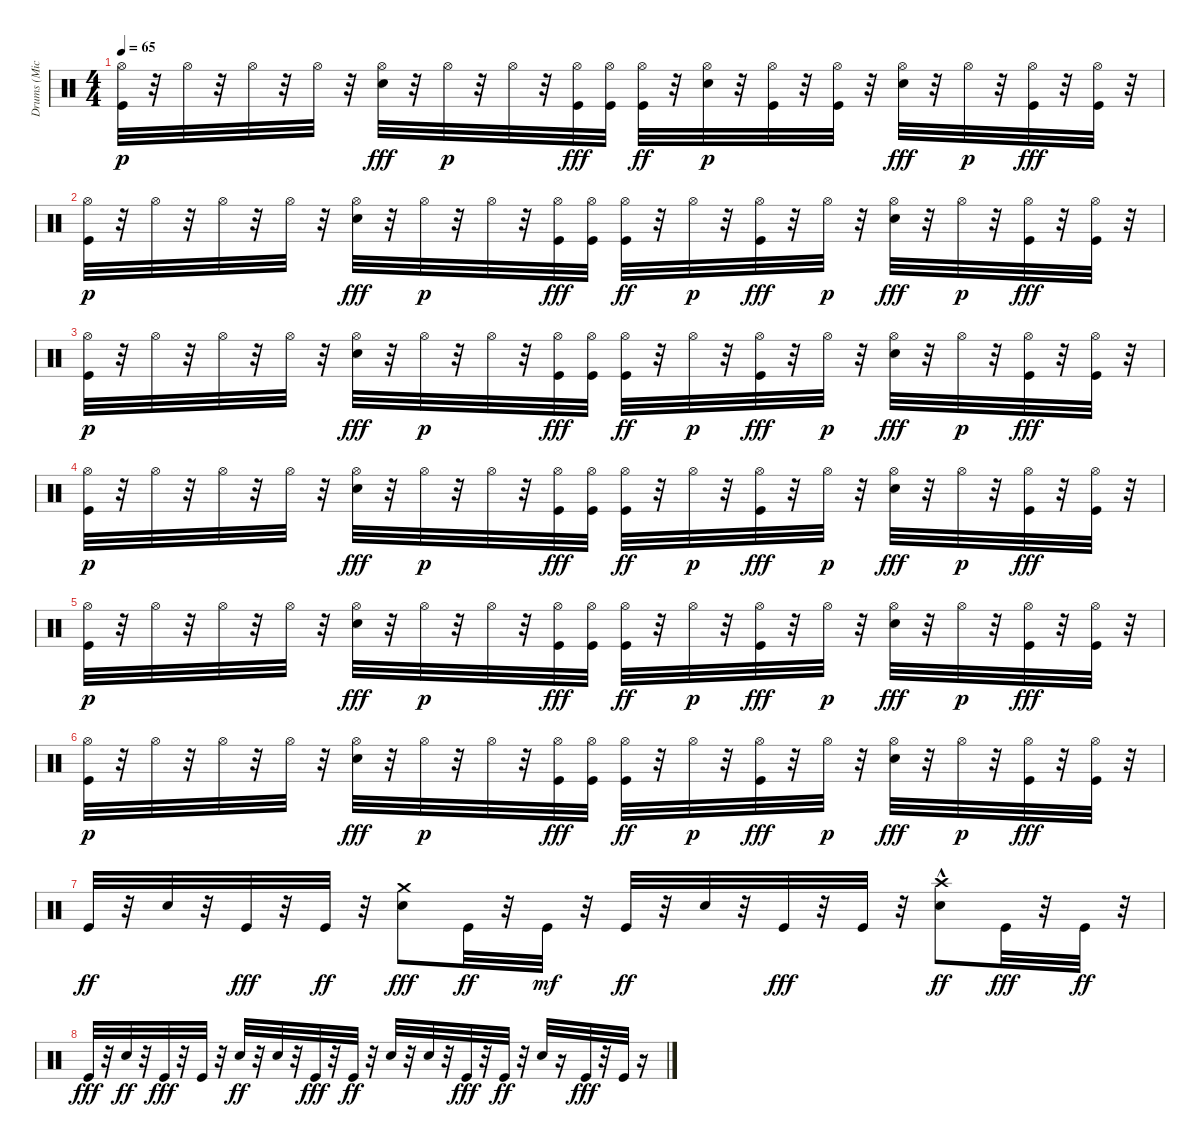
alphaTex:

\track ("Drums (Michael Giles)" "Drums (Mic") {instrument percussion}
\staff {score}
\articulation defaults
\ts (4 4)
\tempo 65
\clef neutral
\ks c
("Kick (hit)" "Hi-Hat (open)").32{dy p} r.32 "Hi-Hat (open)".32 r.32 "Hi-Hat (open)".32 r.32 "Hi-Hat (open)".32 r.32 ("Hi-Hat (open)" "Snare (hit) 2").32{dy fff} r.32 "Hi-Hat (open)".32{dy p} r.32 "Hi-Hat (open)".32 r.32 ("Hi-Hat (open)" "Kick (hit)").32{dy fff} ("Hi-Hat (open)" "Kick (hit)").32 ("Hi-Hat (open)" "Kick (hit)").32{dy ff} r.32 ("Snare (hit) 2" "Hi-Hat (open)").32{dy p} r.32 ("Kick (hit)" "Hi-Hat (open)").32 r.32 ("Kick (hit)" "Hi-Hat (open)").32 r.32 ("Hi-Hat (open)" "Snare (hit) 2").32{dy fff} r.32 "Hi-Hat (open)".32{dy p} r.32 ("Hi-Hat (open)" "Kick (hit)").32{dy fff} r.32 ("Hi-Hat (open)" "Kick (hit)").32 r.32 |
("Kick (hit)" "Hi-Hat (open)").32{dy p} r.32 "Hi-Hat (open)".32 r.32 "Hi-Hat (open)".32 r.32 "Hi-Hat (open)".32 r.32 ("Hi-Hat (open)" "Snare (hit) 2").32{dy fff} r.32 "Hi-Hat (open)".32{dy p} r.32 "Hi-Hat (open)".32 r.32 ("Hi-Hat (open)" "Kick (hit)").32{dy fff} ("Hi-Hat (open)" "Kick (hit)").32 ("Hi-Hat (open)" "Kick (hit)").32{dy ff} r.32 "Hi-Hat (open)".32{dy p} r.32 ("Hi-Hat (open)" "Kick (hit)").32{dy fff} r.32 "Hi-Hat (open)".32{dy p} r.32 ("Hi-Hat (open)" "Snare (hit) 2").32{dy fff} r.32 "Hi-Hat (open)".32{dy p} r.32 ("Hi-Hat (open)" "Kick (hit)").32{dy fff} r.32 ("Hi-Hat (open)" "Kick (hit)").32 r.32 |
("Kick (hit)" "Hi-Hat (open)").32{dy p} r.32 "Hi-Hat (open)".32 r.32 "Hi-Hat (open)".32 r.32 "Hi-Hat (open)".32 r.32 ("Hi-Hat (open)" "Snare (hit) 2").32{dy fff} r.32 "Hi-Hat (open)".32{dy p} r.32 "Hi-Hat (open)".32 r.32 ("Hi-Hat (open)" "Kick (hit)").32{dy fff} ("Hi-Hat (open)" "Kick (hit)").32 ("Hi-Hat (open)" "Kick (hit)").32{dy ff} r.32 "Hi-Hat (open)".32{dy p} r.32 ("Hi-Hat (open)" "Kick (hit)").32{dy fff} r.32 "Hi-Hat (open)".32{dy p} r.32 ("Hi-Hat (open)" "Snare (hit) 2").32{dy fff} r.32 "Hi-Hat (open)".32{dy p} r.32 ("Hi-Hat (open)" "Kick (hit)").32{dy fff} r.32 ("Hi-Hat (open)" "Kick (hit)").32 r.32 |
("Kick (hit)" "Hi-Hat (open)").32{dy p} r.32 "Hi-Hat (open)".32 r.32 "Hi-Hat (open)".32 r.32 "Hi-Hat (open)".32 r.32 ("Hi-Hat (open)" "Snare (hit) 2").32{dy fff} r.32 "Hi-Hat (open)".32{dy p} r.32 "Hi-Hat (open)".32 r.32 ("Hi-Hat (open)" "Kick (hit)").32{dy fff} ("Hi-Hat (open)" "Kick (hit)").32 ("Hi-Hat (open)" "Kick (hit)").32{dy ff} r.32 "Hi-Hat (open)".32{dy p} r.32 ("Hi-Hat (open)" "Kick (hit)").32{dy fff} r.32 "Hi-Hat (open)".32{dy p} r.32 ("Hi-Hat (open)" "Snare (hit) 2").32{dy fff} r.32 "Hi-Hat (open)".32{dy p} r.32 ("Hi-Hat (open)" "Kick (hit)").32{dy fff} r.32 ("Hi-Hat (open)" "Kick (hit)").32 r.32 |
("Kick (hit)" "Hi-Hat (open)").32{dy p} r.32 "Hi-Hat (open)".32 r.32 "Hi-Hat (open)".32 r.32 "Hi-Hat (open)".32 r.32 ("Hi-Hat (open)" "Snare (hit) 2").32{dy fff} r.32 "Hi-Hat (open)".32{dy p} r.32 "Hi-Hat (open)".32 r.32 ("Hi-Hat (open)" "Kick (hit)").32{dy fff} ("Hi-Hat (open)" "Kick (hit)").32 ("Hi-Hat (open)" "Kick (hit)").32{dy ff} r.32 "Hi-Hat (open)".32{dy p} r.32 ("Hi-Hat (open)" "Kick (hit)").32{dy fff} r.32 "Hi-Hat (open)".32{dy p} r.32 ("Hi-Hat (open)" "Snare (hit) 2").32{dy fff} r.32 "Hi-Hat (open)".32{dy p} r.32 ("Hi-Hat (open)" "Kick (hit)").32{dy fff} r.32 ("Hi-Hat (open)" "Kick (hit)").32 r.32 |
("Kick (hit)" "Hi-Hat (open)").32{dy p} r.32 "Hi-Hat (open)".32 r.32 "Hi-Hat (open)".32 r.32 "Hi-Hat (open)".32 r.32 ("Hi-Hat (open)" "Snare (hit) 2").32{dy fff} r.32 "Hi-Hat (open)".32{dy p} r.32 "Hi-Hat (open)".32 r.32 ("Hi-Hat (open)" "Kick (hit)").32{dy fff} ("Hi-Hat (open)" "Kick (hit)").32 ("Hi-Hat (open)" "Kick (hit)").32{dy ff} r.32 "Hi-Hat (open)".32{dy p} r.32 ("Hi-Hat (open)" "Kick (hit)").32{dy fff} r.32 "Hi-Hat (open)".32{dy p} r.32 ("Hi-Hat (open)" "Snare (hit) 2").32{dy fff} r.32 "Hi-Hat (open)".32{dy p} r.32 ("Hi-Hat (open)" "Kick (hit)").32{dy fff} r.32 ("Hi-Hat (open)" "Kick (hit)").32 r.32 |
"Kick (hit)".32{dy ff} r.32 "Snare (hit) 2".32 r.32 "Kick (hit)".32{dy fff} r.32 "Kick (hit)".32{dy ff} r.32 ("Snare (hit) 2" "Crash medium (hit)").8{dy fff} "Kick (hit)".32{dy ff} r.32 "Kick (hit)".32{dy mf} r.32 "Kick (hit)".32{dy ff} r.32 "Snare (hit) 2".32 r.32 "Kick (hit)".32{dy fff} r.32 "Kick (hit)".32 r.32 ("Snare (hit) 2" "Crash high (hit)"{hac}).8{dy ff} "Kick (hit)".32{dy fff} r.32 "Kick (hit)".32{dy ff} r.32 |
"Kick (hit)".32{dy fff} r.32 "Snare (hit) 2".32{dy ff} r.32 "Kick (hit)".32{dy fff} r.32 "Kick (hit)".32 r.32 "Snare (hit) 2".32{dy ff} r.32 "Snare (hit) 2".32 r.32 "Kick (hit)".32{dy fff} r.32 "Kick (hit)".32{dy ff} r.32 "Snare (hit) 2".32 r.32 "Snare (hit) 2".32 r.32 "Kick (hit)".32{dy fff} r.32 "Kick (hit)".32{dy ff} r.32 "Snare (hit) 2".32 r.16 "Kick (hit)".32{dy fff} r.32 "Kick (hit)".32 r.16
